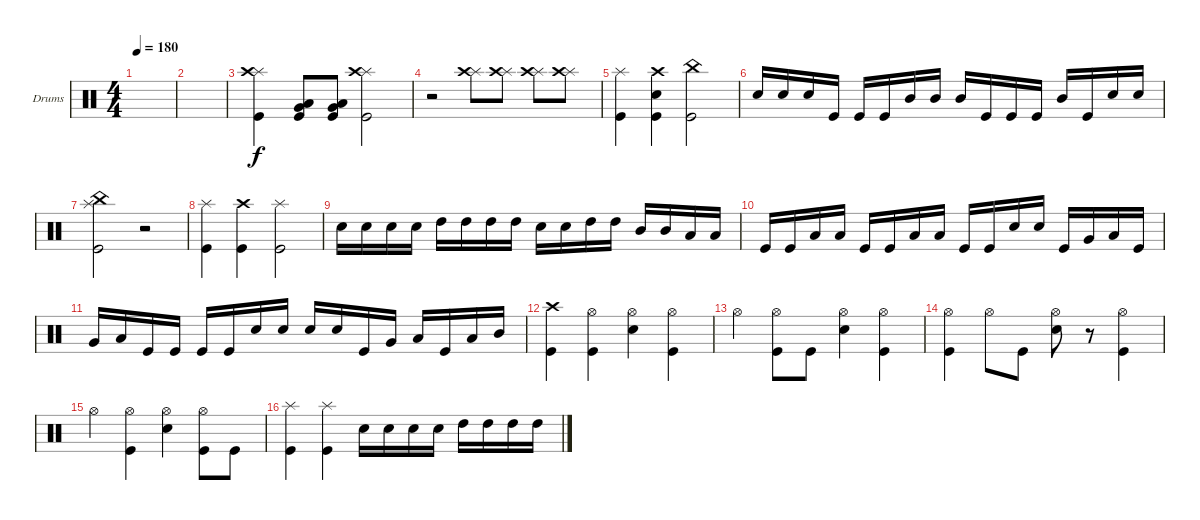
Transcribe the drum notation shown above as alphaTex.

\defaultSystemsLayout 4
\bracketExtendMode groupsimilarinstruments
\firstSystemTrackNameOrientation horizontal
\otherSystemsTrackNameOrientation horizontal
\track ("Drumkit" "Drums") {instrument percussion}
\staff {score}
\articulation defaults
\ts (4 4)
\tempo 180
\clef neutral
\scale
0.333333
\ks c
|
\scale
0.333333 |
\scale
0.333333 ("Splash (hit)" "Crash high (hit)" "Kick (hit)").4 ("Kick (hit)" "Very Low Tom (hit)" "Low Tom (hit)").8 ("Kick (hit)" "Low Tom (hit)" "Very Low Tom (hit)").8 ("Splash (hit)" "Crash high (hit)" "Kick (hit)").2 |
\scale
0.333333 r.2 ("Splash (hit)" "Crash high (hit)").8 ("Splash (hit)" "Crash high (hit)").8 ("Splash (hit)" "Crash high (hit)").8 ("Splash (hit)" "Crash high (hit)").8 |
\scale
0.333333 ("Splash (hit)" "Kick (hit)").4 ("Kick (hit)" "Snare (hit) 2" "Crash high (hit)").4 ("Kick (hit)" "China (hit)").2 |
\scale
0.333333 "Snare (hit) 2".16 "Snare (hit) 2".16 "Snare (hit) 2".16 "Kick (hit)".16 "Kick (hit)".16 "Kick (hit)".16 "Mid Tom (hit)".16 "Mid Tom (hit)".16 "Mid Tom (hit)".16 "Kick (hit)".16 "Kick (hit)".16 "Kick (hit)".16 "Mid Tom (hit)".16 "Kick (hit)".16 "Snare (hit) 2".16 "Snare (hit) 2".16 |
\scale
0.333333 ("Splash (hit)" "China (hit)" "Kick (hit)").2 r.2 |
\scale
0.333333 ("Splash (hit)" "Kick (hit)").4 ("Crash high (hit)" "Kick (hit)").4 ("Splash (hit)" "Kick (hit)").2 |
\scale
0.333333 "Snare (hit) 2".16 "Snare (hit) 2".16 "Snare (hit) 2".16 "Snare (hit) 2".16 "High Tom (hit)".16 "High Tom (hit)".16 "High Tom (hit)".16 "High Tom (hit)".16 "Snare (hit) 2".16 "Snare (hit) 2".16 "High Tom (hit)".16 "High Tom (hit)".16 "Mid Tom (hit)".16 "Mid Tom (hit)".16 "Low Tom (hit)".16 "Low Tom (hit)".16 |
\scale
0.333333 "Kick (hit)".16 "Kick (hit)".16 "Low Tom (hit)".16 "Low Tom (hit)".16 "Kick (hit)".16 "Kick (hit)".16 "Low Tom (hit)".16 "Low Tom (hit)".16 "Kick (hit)".16 "Kick (hit)".16 "Snare (hit) 2".16 "Snare (hit) 2".16 "Kick (hit)".16 "Very Low Tom (hit)".16 "Low Tom (hit)".16 "Kick (hit)".16 |
\scale
0.333333 "Very Low Tom (hit)".16 "Low Tom (hit)".16 "Kick (hit)".16 "Kick (hit)".16 "Kick (hit)".16 "Kick (hit)".16 "Snare (hit) 2".16 "Snare (hit) 2".16 "Snare (hit) 2".16 "Snare (hit) 2".16 "Kick (hit)".16 "Very Low Tom (hit)".16 "Low Tom (hit)".16 "Kick (hit)".16 "Low Tom (hit)".16 "Mid Tom (hit)".16 |
\scale
0.333333 ("Crash high (hit)" "Kick (hit)").4 ("Hi-Hat (open)" "Kick (hit)").4 ("Hi-Hat (open)" "Snare (hit) 2").4 ("Hi-Hat (open)" "Kick (hit)").4 |
\scale
0.333333 "Hi-Hat (open)".4 ("Hi-Hat (open)" "Kick (hit)").8 "Kick (hit)".8 ("Hi-Hat (open)" "Snare (hit) 2").4 ("Hi-Hat (open)" "Kick (hit)").4 |
\scale
0.333333 ("Hi-Hat (open)" "Kick (hit)").4 "Hi-Hat (open)".8 "Kick (hit)".8 ("Hi-Hat (open)" "Snare (hit) 2").8 r.8 ("Hi-Hat (open)" "Kick (hit)").4 |
\scale
0.333333 "Hi-Hat (open)".4 ("Hi-Hat (open)" "Kick (hit)").4 ("Hi-Hat (open)" "Snare (hit) 2").4 ("Hi-Hat (open)" "Kick (hit)").8 "Kick (hit)".8 |
\scale
0.333333 ("Kick (hit)" "Splash (hit)").4 ("Splash (hit)" "Kick (hit)").4 "Snare (hit) 2".16 "Snare (hit) 2".16 "Snare (hit) 2".16 "Snare (hit) 2".16 "High Tom (hit)".16 "High Tom (hit)".16 "High Tom (hit)".16 "High Tom (hit)".16
